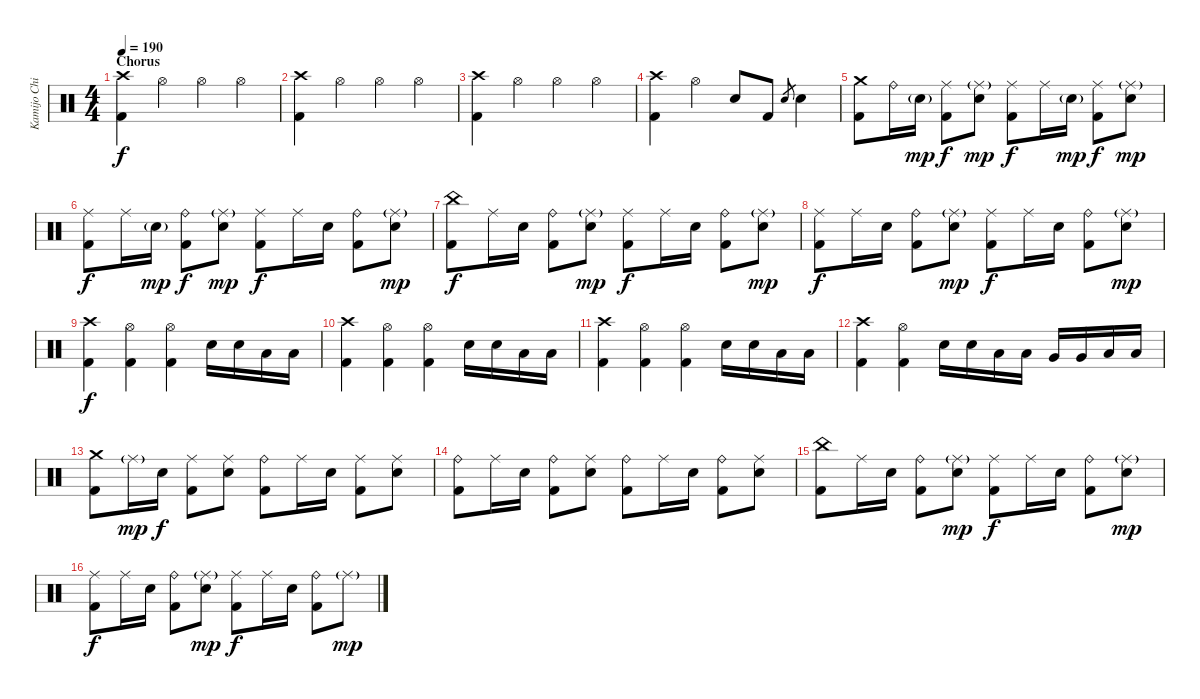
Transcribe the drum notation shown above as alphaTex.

\track ("Kamijo Chihiro" "Kamijo Chi") {instrument percussion}
\staff {score}
\articulation defaults
\ts (4 4)
\section ("" "Chorus")
\tempo 190
\clef neutral
\ks c
("Crash high (hit)" "Kick (hit) 2").4{dy f} "Hi-Hat (open)".4 "Hi-Hat (open)".4 "Hi-Hat (open)".4 |
("Crash high (hit)" "Kick (hit) 2").4 "Hi-Hat (open)".4 "Hi-Hat (open)".4 "Hi-Hat (open)".4 |
("Crash high (hit)" "Kick (hit) 2").4 "Hi-Hat (open)".4 "Hi-Hat (open)".4 "Hi-Hat (open)".4 |
("Crash high (hit)" "Kick (hit) 2").4 "Hi-Hat (open)".4 "Snare (hit) 2".8 "Kick (hit) 2".8 "Snare (hit) 2".8{gr} "Snare (hit) 2".4 |
("Crash medium (hit)" "Kick (hit) 2").8 "Ride (bell)".16 "Snare (hit) 2"{g}.16{dy mp} ("Ride (middle)" "Kick (hit) 2").8{dy f} ("Ride (middle)"{g} "Snare (hit) 2").8{dy mp} ("Ride (middle)" "Kick (hit) 2").8{dy f} "Ride (middle)".16 "Snare (hit) 2"{g}.16{dy mp} ("Ride (middle)" "Kick (hit) 2").8{dy f} ("Ride (middle)"{g} "Snare (hit) 2").8{dy mp} |
("Ride (middle)" "Kick (hit) 2").8{dy f} "Ride (middle)".16 "Snare (hit) 2"{g}.16{dy mp} ("Ride (bell)" "Kick (hit) 2").8{dy f} ("Ride (middle)"{g} "Snare (hit) 2").8{dy mp} ("Ride (middle)" "Kick (hit) 2").8{dy f} "Ride (middle)".16 "Snare (hit) 2".16 ("Ride (bell)" "Kick (hit) 2").8 ("Ride (middle)"{g} "Snare (hit) 2").8{dy mp} |
("China (hit)" "Kick (hit) 2").8{dy f} "Ride (middle)".16 "Snare (hit) 2".16 ("Ride (bell)" "Kick (hit) 2").8 ("Ride (middle)"{g} "Snare (hit) 2").8{dy mp} ("Ride (middle)" "Kick (hit) 2").8{dy f} "Ride (middle)".16 "Snare (hit) 2".16 ("Ride (bell)" "Kick (hit) 2").8 ("Ride (middle)"{g} "Snare (hit) 2").8{dy mp} |
("Ride (middle)" "Kick (hit) 2").8{dy f} "Ride (middle)".16 "Snare (hit) 2".16 ("Ride (bell)" "Kick (hit) 2").8 ("Ride (middle)"{g} "Snare (hit) 2").8{dy mp} ("Ride (middle)" "Kick (hit) 2").8{dy f} "Ride (middle)".16 "Snare (hit) 2".16 ("Ride (bell)" "Kick (hit) 2").8 ("Ride (middle)"{g} "Snare (hit) 2").8{dy mp} |
("Crash high (hit)" "Kick (hit) 2").4{dy f} ("Hi-Hat (open)" "Kick (hit) 2").4 ("Hi-Hat (open)" "Kick (hit) 2").4 "Snare (hit) 2".16 "Snare (hit) 2".16 "Low Tom (hit)".16 "Low Tom (hit)".16 |
("Crash high (hit)" "Kick (hit) 2").4 ("Hi-Hat (open)" "Kick (hit) 2").4 ("Hi-Hat (open)" "Kick (hit) 2").4 "Snare (hit) 2".16 "Snare (hit) 2".16 "Low Tom (hit)".16 "Low Tom (hit)".16 |
("Crash high (hit)" "Kick (hit) 2").4 ("Hi-Hat (open)" "Kick (hit) 2").4 ("Hi-Hat (open)" "Kick (hit) 2").4 "Snare (hit) 2".16 "Snare (hit) 2".16 "Low Tom (hit)".16 "Low Tom (hit)".16 |
("Crash high (hit)" "Kick (hit) 2").4 ("Hi-Hat (open)" "Kick (hit) 2").4 "Snare (hit) 2".16 "Snare (hit) 2".16 "Low Tom (hit)".16 "Low Tom (hit)".16 "Very Low Tom (hit)".16 "Very Low Tom (hit)".16 "Low Floor Tom (hit)".16 "Low Floor Tom (hit)".16 |
("Crash medium (hit)" "Kick (hit) 2").8 "Ride (middle)"{g}.16{dy mp} "Snare (hit) 2".16{dy f} ("Ride (middle)" "Kick (hit) 2").8 ("Ride (middle)" "Snare (hit) 2").8 ("Ride (bell)" "Kick (hit) 2").8 "Ride (middle)".16 "Snare (hit) 2".16 ("Ride (middle)" "Kick (hit) 2").8 ("Ride (middle)" "Snare (hit) 2").8 |
("Ride (bell)" "Kick (hit) 2").8 "Ride (middle)".16 "Snare (hit) 2".16 ("Ride (bell)" "Kick (hit) 2").8 ("Ride (middle)" "Snare (hit) 2").8 ("Ride (bell)" "Kick (hit) 2").8 "Ride (middle)".16 "Snare (hit) 2".16 ("Ride (bell)" "Kick (hit) 2").8 ("Ride (middle)" "Snare (hit) 2").8 |
("China (hit)" "Kick (hit) 2").8 "Ride (middle)".16 "Snare (hit) 2".16 ("Ride (bell)" "Kick (hit) 2").8 ("Ride (middle)"{g} "Snare (hit) 2").8{dy mp} ("Ride (middle)" "Kick (hit) 2").8{dy f} "Ride (middle)".16 "Snare (hit) 2".16 ("Ride (bell)" "Kick (hit) 2").8 ("Ride (middle)"{g} "Snare (hit) 2").8{dy mp} |
("Ride (middle)" "Kick (hit) 2").8{dy f} "Ride (middle)".16 "Snare (hit) 2".16 ("Ride (bell)" "Kick (hit) 2").8 ("Ride (middle)"{g} "Snare (hit) 2").8{dy mp} ("Ride (middle)" "Kick (hit) 2").8{dy f} "Ride (middle)".16 "Snare (hit) 2".16 ("Ride (bell)" "Kick (hit) 2").8 "Ride (middle)"{g}.8{dy mp}
